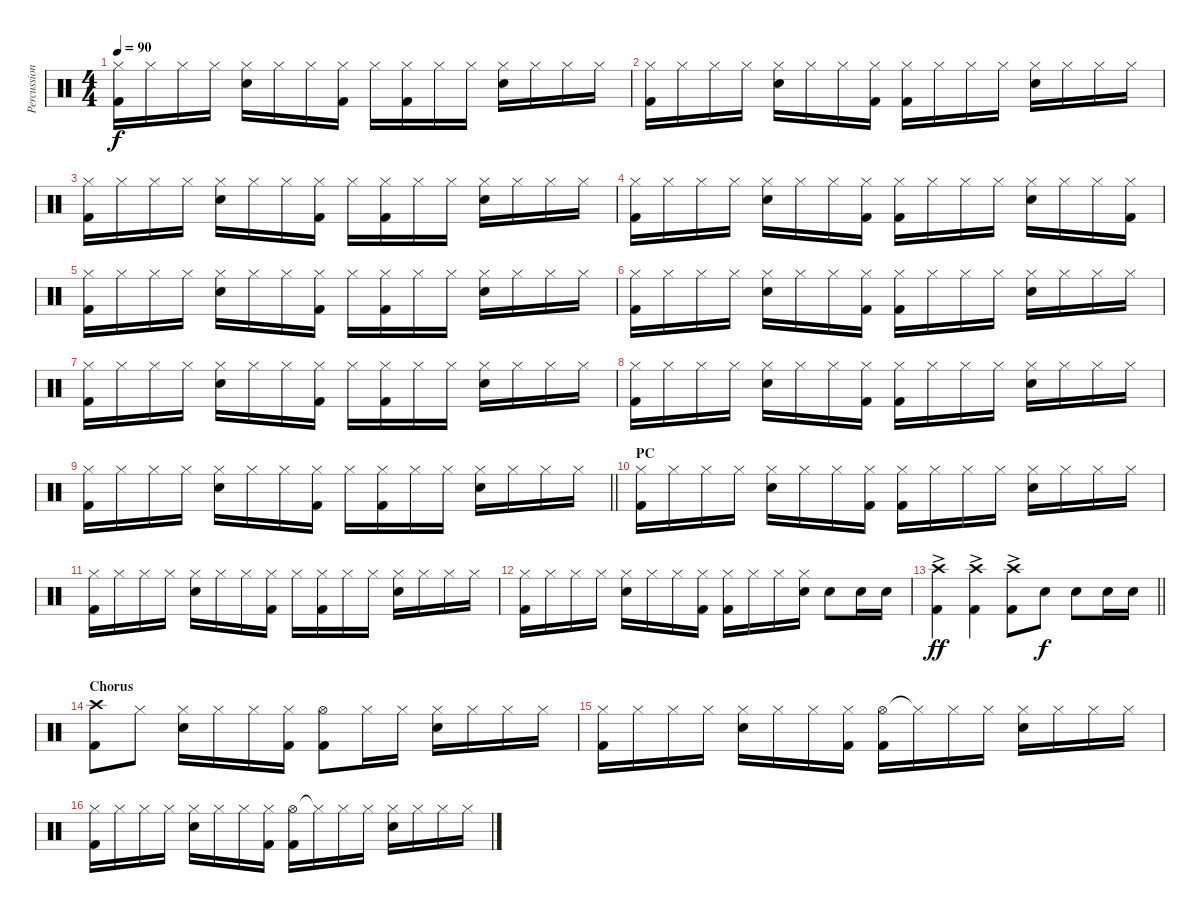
\track ("Percussion" "Percussion") {instrument percussion}
\staff {score}
\articulation defaults
\ts (4 4)
\tempo 90
\clef neutral
\ks c
("Hi-Hat (closed)" "Kick (hit) 2").16{dy f} "Hi-Hat (closed)".16 "Hi-Hat (closed)".16 "Hi-Hat (closed)".16 ("Hi-Hat (closed)" "Electric Snare (hit)").16 "Hi-Hat (closed)".16 "Hi-Hat (closed)".16 ("Hi-Hat (closed)" "Kick (hit) 2").16 "Hi-Hat (closed)".16 ("Hi-Hat (closed)" "Kick (hit) 2").16 "Hi-Hat (closed)".16 "Hi-Hat (closed)".16 ("Hi-Hat (closed)" "Electric Snare (hit)").16 "Hi-Hat (closed)".16 "Hi-Hat (closed)".16 "Hi-Hat (closed)".16 |
("Hi-Hat (closed)" "Kick (hit) 2").16 "Hi-Hat (closed)".16 "Hi-Hat (closed)".16 "Hi-Hat (closed)".16 ("Hi-Hat (closed)" "Electric Snare (hit)").16 "Hi-Hat (closed)".16 "Hi-Hat (closed)".16 ("Hi-Hat (closed)" "Kick (hit) 2").16 ("Hi-Hat (closed)" "Kick (hit) 2").16 "Hi-Hat (closed)".16 "Hi-Hat (closed)".16 "Hi-Hat (closed)".16 ("Hi-Hat (closed)" "Electric Snare (hit)").16 "Hi-Hat (closed)".16 "Hi-Hat (closed)".16 "Hi-Hat (closed)".16 |
("Hi-Hat (closed)" "Kick (hit) 2").16 "Hi-Hat (closed)".16 "Hi-Hat (closed)".16 "Hi-Hat (closed)".16 ("Hi-Hat (closed)" "Electric Snare (hit)").16 "Hi-Hat (closed)".16 "Hi-Hat (closed)".16 ("Hi-Hat (closed)" "Kick (hit) 2").16 "Hi-Hat (closed)".16 ("Hi-Hat (closed)" "Kick (hit) 2").16 "Hi-Hat (closed)".16 "Hi-Hat (closed)".16 ("Hi-Hat (closed)" "Electric Snare (hit)").16 "Hi-Hat (closed)".16 "Hi-Hat (closed)".16 "Hi-Hat (closed)".16 |
("Hi-Hat (closed)" "Kick (hit) 2").16 "Hi-Hat (closed)".16 "Hi-Hat (closed)".16 "Hi-Hat (closed)".16 ("Hi-Hat (closed)" "Electric Snare (hit)").16 "Hi-Hat (closed)".16 "Hi-Hat (closed)".16 ("Hi-Hat (closed)" "Kick (hit) 2").16 ("Hi-Hat (closed)" "Kick (hit) 2").16 "Hi-Hat (closed)".16 "Hi-Hat (closed)".16 "Hi-Hat (closed)".16 ("Hi-Hat (closed)" "Electric Snare (hit)").16 "Hi-Hat (closed)".16 "Hi-Hat (closed)".16 ("Hi-Hat (closed)" "Kick (hit) 2").16 |
("Hi-Hat (closed)" "Kick (hit) 2").16 "Hi-Hat (closed)".16 "Hi-Hat (closed)".16 "Hi-Hat (closed)".16 ("Hi-Hat (closed)" "Electric Snare (hit)").16 "Hi-Hat (closed)".16 "Hi-Hat (closed)".16 ("Hi-Hat (closed)" "Kick (hit) 2").16 "Hi-Hat (closed)".16 ("Hi-Hat (closed)" "Kick (hit) 2").16 "Hi-Hat (closed)".16 "Hi-Hat (closed)".16 ("Hi-Hat (closed)" "Electric Snare (hit)").16 "Hi-Hat (closed)".16 "Hi-Hat (closed)".16 "Hi-Hat (closed)".16 |
("Hi-Hat (closed)" "Kick (hit) 2").16 "Hi-Hat (closed)".16 "Hi-Hat (closed)".16 "Hi-Hat (closed)".16 ("Hi-Hat (closed)" "Electric Snare (hit)").16 "Hi-Hat (closed)".16 "Hi-Hat (closed)".16 ("Hi-Hat (closed)" "Kick (hit) 2").16 ("Hi-Hat (closed)" "Kick (hit) 2").16 "Hi-Hat (closed)".16 "Hi-Hat (closed)".16 "Hi-Hat (closed)".16 ("Hi-Hat (closed)" "Electric Snare (hit)").16 "Hi-Hat (closed)".16 "Hi-Hat (closed)".16 "Hi-Hat (closed)".16 |
("Hi-Hat (closed)" "Kick (hit) 2").16 "Hi-Hat (closed)".16 "Hi-Hat (closed)".16 "Hi-Hat (closed)".16 ("Hi-Hat (closed)" "Electric Snare (hit)").16 "Hi-Hat (closed)".16 "Hi-Hat (closed)".16 ("Hi-Hat (closed)" "Kick (hit) 2").16 "Hi-Hat (closed)".16 ("Hi-Hat (closed)" "Kick (hit) 2").16 "Hi-Hat (closed)".16 "Hi-Hat (closed)".16 ("Hi-Hat (closed)" "Electric Snare (hit)").16 "Hi-Hat (closed)".16 "Hi-Hat (closed)".16 "Hi-Hat (closed)".16 |
("Hi-Hat (closed)" "Kick (hit) 2").16 "Hi-Hat (closed)".16 "Hi-Hat (closed)".16 "Hi-Hat (closed)".16 ("Hi-Hat (closed)" "Electric Snare (hit)").16 "Hi-Hat (closed)".16 "Hi-Hat (closed)".16 ("Hi-Hat (closed)" "Kick (hit) 2").16 ("Hi-Hat (closed)" "Kick (hit) 2").16 "Hi-Hat (closed)".16 "Hi-Hat (closed)".16 "Hi-Hat (closed)".16 ("Hi-Hat (closed)" "Electric Snare (hit)").16 "Hi-Hat (closed)".16 "Hi-Hat (closed)".16 "Hi-Hat (closed)".16 |
\barLineRight lightlight
("Hi-Hat (closed)" "Kick (hit) 2").16 "Hi-Hat (closed)".16 "Hi-Hat (closed)".16 "Hi-Hat (closed)".16 ("Hi-Hat (closed)" "Electric Snare (hit)").16 "Hi-Hat (closed)".16 "Hi-Hat (closed)".16 ("Hi-Hat (closed)" "Kick (hit) 2").16 "Hi-Hat (closed)".16 ("Hi-Hat (closed)" "Kick (hit) 2").16 "Hi-Hat (closed)".16 "Hi-Hat (closed)".16 ("Hi-Hat (closed)" "Electric Snare (hit)").16 "Hi-Hat (closed)".16 "Hi-Hat (closed)".16 "Hi-Hat (closed)".16 |
\section ("" "PC")
("Hi-Hat (closed)" "Kick (hit) 2").16 "Hi-Hat (closed)".16 "Hi-Hat (closed)".16 "Hi-Hat (closed)".16 ("Hi-Hat (closed)" "Electric Snare (hit)").16 "Hi-Hat (closed)".16 "Hi-Hat (closed)".16 ("Hi-Hat (closed)" "Kick (hit) 2").16 ("Hi-Hat (closed)" "Kick (hit) 2").16 "Hi-Hat (closed)".16 "Hi-Hat (closed)".16 "Hi-Hat (closed)".16 ("Hi-Hat (closed)" "Electric Snare (hit)").16 "Hi-Hat (closed)".16 "Hi-Hat (closed)".16 "Hi-Hat (closed)".16 |
("Hi-Hat (closed)" "Kick (hit) 2").16 "Hi-Hat (closed)".16 "Hi-Hat (closed)".16 "Hi-Hat (closed)".16 ("Hi-Hat (closed)" "Electric Snare (hit)").16 "Hi-Hat (closed)".16 "Hi-Hat (closed)".16 ("Hi-Hat (closed)" "Kick (hit) 2").16 "Hi-Hat (closed)".16 ("Hi-Hat (closed)" "Kick (hit) 2").16 "Hi-Hat (closed)".16 "Hi-Hat (closed)".16 ("Hi-Hat (closed)" "Electric Snare (hit)").16 "Hi-Hat (closed)".16 "Hi-Hat (closed)".16 "Hi-Hat (closed)".16 |
("Hi-Hat (closed)" "Kick (hit) 2").16 "Hi-Hat (closed)".16 "Hi-Hat (closed)".16 "Hi-Hat (closed)".16 ("Hi-Hat (closed)" "Electric Snare (hit)").16 "Hi-Hat (closed)".16 "Hi-Hat (closed)".16 ("Hi-Hat (closed)" "Kick (hit) 2").16 ("Hi-Hat (closed)" "Kick (hit) 2").16 "Hi-Hat (closed)".16 "Hi-Hat (closed)".16 ("Hi-Hat (closed)" "Electric Snare (hit)").16 "Electric Snare (hit)".8 "Electric Snare (hit)".16 "Electric Snare (hit)".16 |
\barLineRight lightlight
("Crash high (hit)"{ac} "Kick (hit) 2"{ac}).4{dy ff} ("Crash high (hit)"{ac} "Kick (hit) 2"{ac}).4 ("Crash high (hit)"{ac} "Kick (hit) 2"{ac}).8 "Electric Snare (hit)".8{dy f} "Electric Snare (hit)".8 "Electric Snare (hit)".16 "Electric Snare (hit)".16 |
\section ("" "Chorus")
("Crash high (hit)" "Kick (hit) 2").8 "Hi-Hat (closed)".8 ("Hi-Hat (closed)" "Electric Snare (hit)").16 "Hi-Hat (closed)".16 "Hi-Hat (closed)".16 ("Hi-Hat (closed)" "Kick (hit) 2").16 ("Hi-Hat (open)" "Kick (hit) 2").8 "Hi-Hat (closed)".16 "Hi-Hat (closed)".16 ("Hi-Hat (closed)" "Electric Snare (hit)").16 "Hi-Hat (closed)".16 "Hi-Hat (closed)".16 "Hi-Hat (closed)".16 |
("Hi-Hat (closed)" "Kick (hit) 2").16 "Hi-Hat (closed)".16 "Hi-Hat (closed)".16 "Hi-Hat (closed)".16 ("Hi-Hat (closed)" "Electric Snare (hit)").16 "Hi-Hat (closed)".16 "Hi-Hat (closed)".16 ("Hi-Hat (closed)" "Kick (hit) 2").16 ("Hi-Hat (open)" "Kick (hit) 2").16 "Hi-Hat (closed)"{t}.16 "Hi-Hat (closed)".16 "Hi-Hat (closed)".16 ("Hi-Hat (closed)" "Electric Snare (hit)").16 "Hi-Hat (closed)".16 "Hi-Hat (closed)".16 "Hi-Hat (closed)".16 |
("Hi-Hat (closed)" "Kick (hit) 2").16 "Hi-Hat (closed)".16 "Hi-Hat (closed)".16 "Hi-Hat (closed)".16 ("Hi-Hat (closed)" "Electric Snare (hit)").16 "Hi-Hat (closed)".16 "Hi-Hat (closed)".16 ("Hi-Hat (closed)" "Kick (hit) 2").16 ("Hi-Hat (open)" "Kick (hit) 2").16 "Hi-Hat (closed)"{t}.16 "Hi-Hat (closed)".16 "Hi-Hat (closed)".16 ("Hi-Hat (closed)" "Electric Snare (hit)").16 "Hi-Hat (closed)".16 "Hi-Hat (closed)".16 "Hi-Hat (closed)".16
